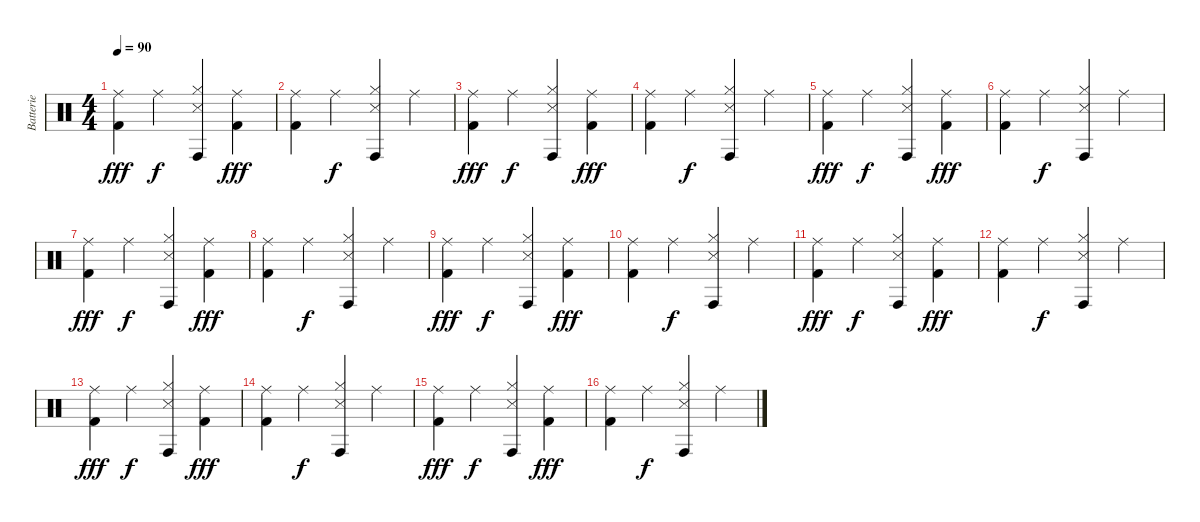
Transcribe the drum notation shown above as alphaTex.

\track ("Batterie" "Batterie") {instrument percussion}
\staff {score}
\articulation defaults
\ts (4 4)
\tempo 90
\clef neutral
\ks c
("Ride (middle)" "Kick (hit) 2").4{dy fff} "Ride (middle)".4{dy f} ("Snare (side stick) 3" "Hi-Hat (closed)" "Conga high (hit)").4 ("Ride (middle)" "Kick (hit) 2").4{dy fff} |
("Ride (middle)" "Kick (hit) 2").4 "Ride (middle)".4{dy f} ("Snare (side stick) 3" "Hi-Hat (closed)" "Conga high (hit)").4 "Ride (middle)".4 |
("Ride (middle)" "Kick (hit) 2").4{dy fff} "Ride (middle)".4{dy f} ("Snare (side stick) 3" "Hi-Hat (closed)" "Conga high (hit)").4 ("Ride (middle)" "Kick (hit) 2").4{dy fff} |
("Ride (middle)" "Kick (hit) 2").4 "Ride (middle)".4{dy f} ("Snare (side stick) 3" "Hi-Hat (closed)" "Conga high (hit)").4 "Ride (middle)".4 |
("Ride (middle)" "Kick (hit) 2").4{dy fff} "Ride (middle)".4{dy f} ("Snare (side stick) 3" "Hi-Hat (closed)" "Conga high (hit)").4 ("Ride (middle)" "Kick (hit) 2").4{dy fff} |
("Ride (middle)" "Kick (hit) 2").4 "Ride (middle)".4{dy f} ("Snare (side stick) 3" "Hi-Hat (closed)" "Conga high (hit)").4 "Ride (middle)".4 |
("Ride (middle)" "Kick (hit) 2").4{dy fff} "Ride (middle)".4{dy f} ("Snare (side stick) 3" "Hi-Hat (closed)" "Conga high (hit)").4 ("Ride (middle)" "Kick (hit) 2").4{dy fff} |
("Ride (middle)" "Kick (hit) 2").4 "Ride (middle)".4{dy f} ("Snare (side stick) 3" "Hi-Hat (closed)" "Conga high (hit)").4 "Ride (middle)".4 |
("Ride (middle)" "Kick (hit) 2").4{dy fff} "Ride (middle)".4{dy f} ("Snare (side stick) 3" "Hi-Hat (closed)" "Conga high (hit)").4 ("Ride (middle)" "Kick (hit) 2").4{dy fff} |
("Ride (middle)" "Kick (hit) 2").4 "Ride (middle)".4{dy f} ("Snare (side stick) 3" "Hi-Hat (closed)" "Conga high (hit)").4 "Ride (middle)".4 |
("Ride (middle)" "Kick (hit) 2").4{dy fff} "Ride (middle)".4{dy f} ("Snare (side stick) 3" "Hi-Hat (closed)" "Conga high (hit)").4 ("Ride (middle)" "Kick (hit) 2").4{dy fff} |
("Ride (middle)" "Kick (hit) 2").4 "Ride (middle)".4{dy f} ("Snare (side stick) 3" "Hi-Hat (closed)" "Conga high (hit)").4 "Ride (middle)".4 |
("Ride (middle)" "Kick (hit) 2").4{dy fff} "Ride (middle)".4{dy f} ("Snare (side stick) 3" "Hi-Hat (closed)" "Conga high (hit)").4 ("Ride (middle)" "Kick (hit) 2").4{dy fff} |
("Ride (middle)" "Kick (hit) 2").4 "Ride (middle)".4{dy f} ("Snare (side stick) 3" "Hi-Hat (closed)" "Conga high (hit)").4 "Ride (middle)".4 |
("Ride (middle)" "Kick (hit) 2").4{dy fff} "Ride (middle)".4{dy f} ("Snare (side stick) 3" "Hi-Hat (closed)" "Conga high (hit)").4 ("Ride (middle)" "Kick (hit) 2").4{dy fff} |
("Ride (middle)" "Kick (hit) 2").4 "Ride (middle)".4{dy f} ("Snare (side stick) 3" "Hi-Hat (closed)" "Conga high (hit)").4 "Ride (middle)".4
